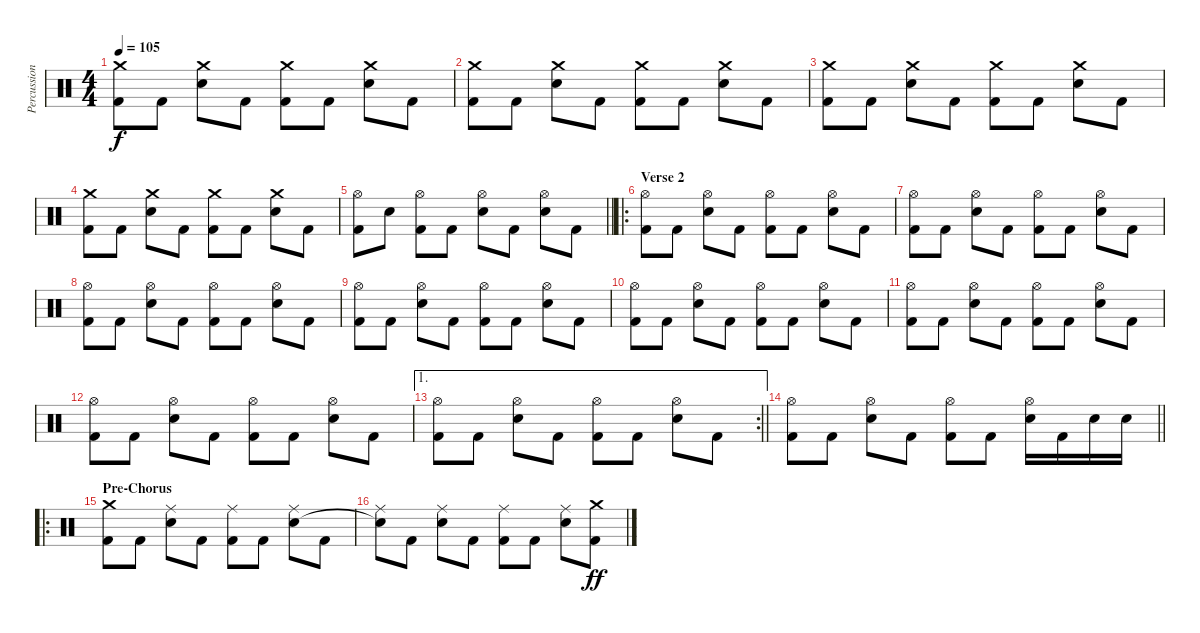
\track ("Percussions" "Percussion") {instrument percussion}
\staff {score}
\articulation defaults
\ts (4 4)
\tempo 105
\clef neutral
\ks c
("Crash medium (hit)" "Kick (hit) 2").8{dy f} "Kick (hit) 2".8 ("Crash medium (hit)" "Electric Snare (hit)").8 "Kick (hit) 2".8 ("Crash medium (hit)" "Kick (hit) 2").8 "Kick (hit) 2".8 ("Crash medium (hit)" "Electric Snare (hit)").8 "Kick (hit) 2".8 |
("Crash medium (hit)" "Kick (hit) 2").8 "Kick (hit) 2".8 ("Crash medium (hit)" "Electric Snare (hit)").8 "Kick (hit) 2".8 ("Crash medium (hit)" "Kick (hit) 2").8 "Kick (hit) 2".8 ("Crash medium (hit)" "Electric Snare (hit)").8 "Kick (hit) 2".8 |
("Crash medium (hit)" "Kick (hit) 2").8 "Kick (hit) 2".8 ("Crash medium (hit)" "Electric Snare (hit)").8 "Kick (hit) 2".8 ("Crash medium (hit)" "Kick (hit) 2").8 "Kick (hit) 2".8 ("Crash medium (hit)" "Electric Snare (hit)").8 "Kick (hit) 2".8 |
("Crash medium (hit)" "Kick (hit) 2").8 "Kick (hit) 2".8 ("Crash medium (hit)" "Electric Snare (hit)").8 "Kick (hit) 2".8 ("Crash medium (hit)" "Kick (hit) 2").8 "Kick (hit) 2".8 ("Crash medium (hit)" "Electric Snare (hit)").8 "Kick (hit) 2".8 |
\barLineRight lightlight
("Hi-Hat (open)" "Kick (hit) 2").8 "Electric Snare (hit)".8 ("Hi-Hat (open)" "Kick (hit) 2").8 "Kick (hit) 2".8 ("Hi-Hat (open)" "Electric Snare (hit)").8 "Kick (hit) 2".8 ("Hi-Hat (open)" "Electric Snare (hit)").8 "Kick (hit) 2".8 |
\ro
\section ("" "Verse 2")
("Hi-Hat (open)" "Kick (hit) 2").8 "Kick (hit) 2".8 ("Hi-Hat (open)" "Electric Snare (hit)").8 "Kick (hit) 2".8 ("Hi-Hat (open)" "Kick (hit) 2").8 "Kick (hit) 2".8 ("Hi-Hat (open)" "Electric Snare (hit)").8 "Kick (hit) 2".8 |
("Hi-Hat (open)" "Kick (hit) 2").8 "Kick (hit) 2".8 ("Hi-Hat (open)" "Electric Snare (hit)").8 "Kick (hit) 2".8 ("Hi-Hat (open)" "Kick (hit) 2").8 "Kick (hit) 2".8 ("Hi-Hat (open)" "Electric Snare (hit)").8 "Kick (hit) 2".8 |
("Hi-Hat (open)" "Kick (hit) 2").8 "Kick (hit) 2".8 ("Hi-Hat (open)" "Electric Snare (hit)").8 "Kick (hit) 2".8 ("Hi-Hat (open)" "Kick (hit) 2").8 "Kick (hit) 2".8 ("Hi-Hat (open)" "Electric Snare (hit)").8 "Kick (hit) 2".8 |
("Hi-Hat (open)" "Kick (hit) 2").8 "Kick (hit) 2".8 ("Hi-Hat (open)" "Electric Snare (hit)").8 "Kick (hit) 2".8 ("Hi-Hat (open)" "Kick (hit) 2").8 "Kick (hit) 2".8 ("Hi-Hat (open)" "Electric Snare (hit)").8 "Kick (hit) 2".8 |
("Hi-Hat (open)" "Kick (hit) 2").8 "Kick (hit) 2".8 ("Hi-Hat (open)" "Electric Snare (hit)").8 "Kick (hit) 2".8 ("Hi-Hat (open)" "Kick (hit) 2").8 "Kick (hit) 2".8 ("Hi-Hat (open)" "Electric Snare (hit)").8 "Kick (hit) 2".8 |
("Hi-Hat (open)" "Kick (hit) 2").8 "Kick (hit) 2".8 ("Hi-Hat (open)" "Electric Snare (hit)").8 "Kick (hit) 2".8 ("Hi-Hat (open)" "Kick (hit) 2").8 "Kick (hit) 2".8 ("Hi-Hat (open)" "Electric Snare (hit)").8 "Kick (hit) 2".8 |
("Hi-Hat (open)" "Kick (hit) 2").8 "Kick (hit) 2".8 ("Hi-Hat (open)" "Electric Snare (hit)").8 "Kick (hit) 2".8 ("Hi-Hat (open)" "Kick (hit) 2").8 "Kick (hit) 2".8 ("Hi-Hat (open)" "Electric Snare (hit)").8 "Kick (hit) 2".8 |
\ae 1
\rc 2
\barLineRight lightlight
("Hi-Hat (open)" "Kick (hit) 2").8 "Kick (hit) 2".8 ("Hi-Hat (open)" "Electric Snare (hit)").8 "Kick (hit) 2".8 ("Hi-Hat (open)" "Kick (hit) 2").8 "Kick (hit) 2".8 ("Hi-Hat (open)" "Electric Snare (hit)").8 "Kick (hit) 2".8 |
\barLineRight lightlight
("Hi-Hat (open)" "Kick (hit) 2").8 "Kick (hit) 2".8 ("Hi-Hat (open)" "Electric Snare (hit)").8 "Kick (hit) 2".8 ("Hi-Hat (open)" "Kick (hit) 2").8 "Kick (hit) 2".8 ("Hi-Hat (open)" "Electric Snare (hit)").16 "Kick (hit) 2".16 "Electric Snare (hit)".16 "Electric Snare (hit)".16 |
\ro
\section ("" "Pre-Chorus")
("Crash medium (hit)" "Kick (hit) 2").8 "Kick (hit) 2".8 ("Ride (middle)" "Electric Snare (hit)").8 "Kick (hit) 2".8 ("Ride (middle)" "Kick (hit) 2").8 "Kick (hit) 2".8 ("Ride (middle)" "Electric Snare (hit)").8 "Kick (hit) 2".8 |
("Ride (middle)" "Snare (hit)"{t}).8 "Kick (hit) 2".8 ("Ride (middle)" "Electric Snare (hit)").8 "Kick (hit) 2".8 ("Ride (middle)" "Kick (hit) 2").8 "Kick (hit) 2".8 ("Ride (middle)" "Electric Snare (hit)").8 ("Crash medium (hit)" "Kick (hit) 2").8{dy ff}
